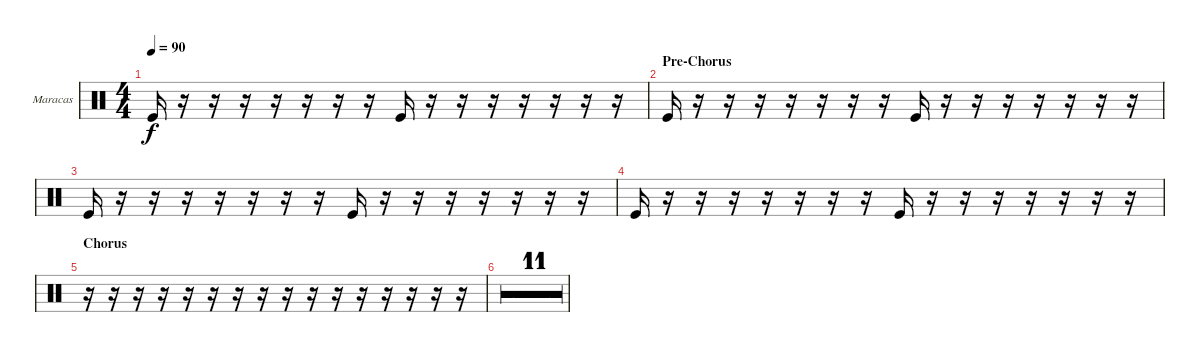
\bracketExtendMode groupsimilarinstruments
\firstSystemTrackNameOrientation horizontal
\otherSystemsTrackNameOrientation horizontal
\track ("Maracas" "Maracas") {multiBarRest instrument percussion}
\staff {score}
\articulation defaults
\ts (4 4)
\tempo 90
\clef neutral
\ks c "Kick (hit)".16{dy f}
r.16 r.16 r.16 r.16 r.16 r.16 r.16 "Kick (hit)".16 r.16 r.16 r.16 r.16 r.16 r.16 r.16 |
\section ("" "Pre-Chorus")
"Kick (hit)".16 r.16 r.16 r.16 r.16 r.16 r.16 r.16 "Kick (hit)".16 r.16 r.16 r.16 r.16 r.16 r.16 r.16 |
"Kick (hit)".16 r.16 r.16 r.16 r.16 r.16 r.16 r.16 "Kick (hit)".16 r.16 r.16 r.16 r.16 r.16 r.16 r.16 |
"Kick (hit)".16 r.16 r.16 r.16 r.16 r.16 r.16 r.16 "Kick (hit)".16 r.16 r.16 r.16 r.16 r.16 r.16 r.16 |
\section ("" "Chorus")
r.16 r.16 r.16 r.16 r.16 r.16 r.16 r.16 r.16 r.16 r.16 r.16 r.16 r.16 r.16 r.16 |
r.16 r.16 r.16 r.16 r.16 r.16 r.16 r.16 r.16 r.16 r.16 r.16 r.16 r.16 r.16 r.16 |
r.16 r.16 r.16 r.16 r.16 r.16 r.16 r.16 r.16 r.16 r.16 r.16 r.16 r.16 r.16 r.16 |
r.16 r.16 r.16 r.16 r.16 r.16 r.16 r.16 r.16 r.16 r.16 r.16 r.16 r.16 r.16 r.16 |
r.16 r.16 r.16 r.16 r.16 r.16 r.16 r.16 r.16 r.16 r.16 r.16 r.16 r.16 r.16 r.16 |
r.16 r.16 r.16 r.16 r.16 r.16 r.16 r.16 r.16 r.16 r.16 r.16 r.16 r.16 r.16 r.16 |
r.16 r.16 r.16 r.16 r.16 r.16 r.16 r.16 r.16 r.16 r.16 r.16 r.16 r.16 r.16 r.16 |
r.16 r.16 r.16 r.16 r.16 r.16 r.16 r.16 r.16 r.16 r.16 r.16 r.16 r.16 r.16 r.16 |
r.16 r.16 r.16 r.16 r.16 r.16 r.16 r.16 r.16 r.16 r.16 r.16 r.16 r.16 r.16 r.16 |
r.16 r.16 r.16 r.16 r.16 r.16 r.16 r.16 r.16 r.16 r.16 r.16 r.16 r.16 r.16 r.16 |
r.16 r.16 r.16 r.16 r.16 r.16 r.16 r.16 r.16 r.16 r.16 r.16 r.16 r.16 r.16 r.16 |
r.16 r.16 r.16 r.16 r.16 r.16 r.16 r.16 r.16 r.16 r.16 r.16 r.16 r.16 r.16 r.16
